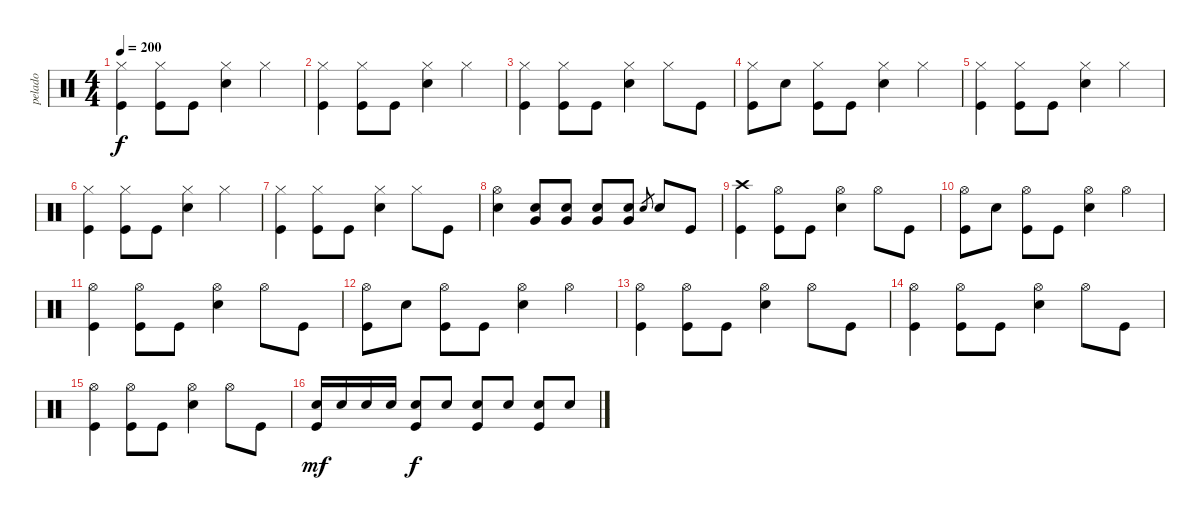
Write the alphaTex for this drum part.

\track ("pelado" "pelado") {instrument percussion}
\staff {score}
\articulation defaults
\ts (4 4)
\tempo 200
\clef neutral
\ks c
("Hi-Hat (closed)" "Kick (hit)").4{dy f} ("Hi-Hat (closed)" "Kick (hit)").8 "Kick (hit)".8 ("Hi-Hat (closed)" "Electric Snare (hit)").4 "Hi-Hat (closed)".4 |
("Hi-Hat (closed)" "Kick (hit)").4 ("Hi-Hat (closed)" "Kick (hit)").8 "Kick (hit)".8 ("Hi-Hat (closed)" "Electric Snare (hit)").4 "Hi-Hat (closed)".4 |
("Hi-Hat (closed)" "Kick (hit)").4 ("Hi-Hat (closed)" "Kick (hit)").8 "Kick (hit)".8 ("Hi-Hat (closed)" "Electric Snare (hit)").4 "Hi-Hat (closed)".8 "Kick (hit)".8 |
("Hi-Hat (closed)" "Kick (hit)").8 "Electric Snare (hit)".8 ("Hi-Hat (closed)" "Kick (hit)").8 "Kick (hit)".8 ("Hi-Hat (closed)" "Electric Snare (hit)").4 "Hi-Hat (closed)".4 |
("Hi-Hat (closed)" "Kick (hit)").4 ("Hi-Hat (closed)" "Kick (hit)").8 "Kick (hit)".8 ("Hi-Hat (closed)" "Electric Snare (hit)").4 "Hi-Hat (closed)".4 |
("Hi-Hat (closed)" "Kick (hit)").4 ("Hi-Hat (closed)" "Kick (hit)").8 "Kick (hit)".8 ("Hi-Hat (closed)" "Electric Snare (hit)").4 "Hi-Hat (closed)".4 |
("Hi-Hat (closed)" "Kick (hit)").4 ("Hi-Hat (closed)" "Kick (hit)").8 "Kick (hit)".8 ("Hi-Hat (closed)" "Electric Snare (hit)").4 "Hi-Hat (closed)".8 "Kick (hit)".8 |
("Hi-Hat (open)" "Electric Snare (hit)").4 ("Very Low Tom (hit)" "Electric Snare (hit)").8 ("Very Low Tom (hit)" "Electric Snare (hit)").8 ("Very Low Tom (hit)" "Electric Snare (hit)").8 ("Very Low Tom (hit)" "Electric Snare (hit)").8 "Electric Snare (hit)".8{gr} "Electric Snare (hit)".8 "Kick (hit)".8 |
("Crash high (hit)" "Kick (hit)").4 ("Hi-Hat (open)" "Kick (hit)").8 "Kick (hit)".8 ("Hi-Hat (open)" "Electric Snare (hit)").4 "Hi-Hat (open)".8 "Kick (hit)".8 |
("Hi-Hat (open)" "Kick (hit)").8 "Electric Snare (hit)".8 ("Hi-Hat (open)" "Kick (hit)").8 "Kick (hit)".8 ("Hi-Hat (open)" "Electric Snare (hit)").4 "Hi-Hat (open)".4 |
("Hi-Hat (open)" "Kick (hit)").4 ("Hi-Hat (open)" "Kick (hit)").8 "Kick (hit)".8 ("Hi-Hat (open)" "Electric Snare (hit)").4 "Hi-Hat (open)".8 "Kick (hit)".8 |
("Hi-Hat (open)" "Kick (hit)").8 "Electric Snare (hit)".8 ("Hi-Hat (open)" "Kick (hit)").8 "Kick (hit)".8 ("Hi-Hat (open)" "Electric Snare (hit)").4 "Hi-Hat (open)".4 |
("Hi-Hat (open)" "Kick (hit)").4 ("Hi-Hat (open)" "Kick (hit)").8 "Kick (hit)".8 ("Hi-Hat (open)" "Electric Snare (hit)").4 "Hi-Hat (open)".8 "Kick (hit)".8 |
("Hi-Hat (open)" "Kick (hit)").4 ("Hi-Hat (open)" "Kick (hit)").8 "Kick (hit)".8 ("Hi-Hat (open)" "Electric Snare (hit)").4 "Hi-Hat (open)".8 "Kick (hit)".8 |
("Hi-Hat (open)" "Kick (hit)").4 ("Hi-Hat (open)" "Kick (hit)").8 "Kick (hit)".8 ("Hi-Hat (open)" "Electric Snare (hit)").4 "Hi-Hat (open)".8 "Kick (hit)".8 |
("Electric Snare (hit)" "Kick (hit)").16{dy mf} "Electric Snare (hit)".16 "Electric Snare (hit)".16 "Electric Snare (hit)".16 ("Electric Snare (hit)" "Kick (hit)").8{dy f} "Electric Snare (hit)".8 ("Electric Snare (hit)" "Kick (hit)").8 "Electric Snare (hit)".8 ("Electric Snare (hit)" "Kick (hit)").8 "Electric Snare (hit)".8
